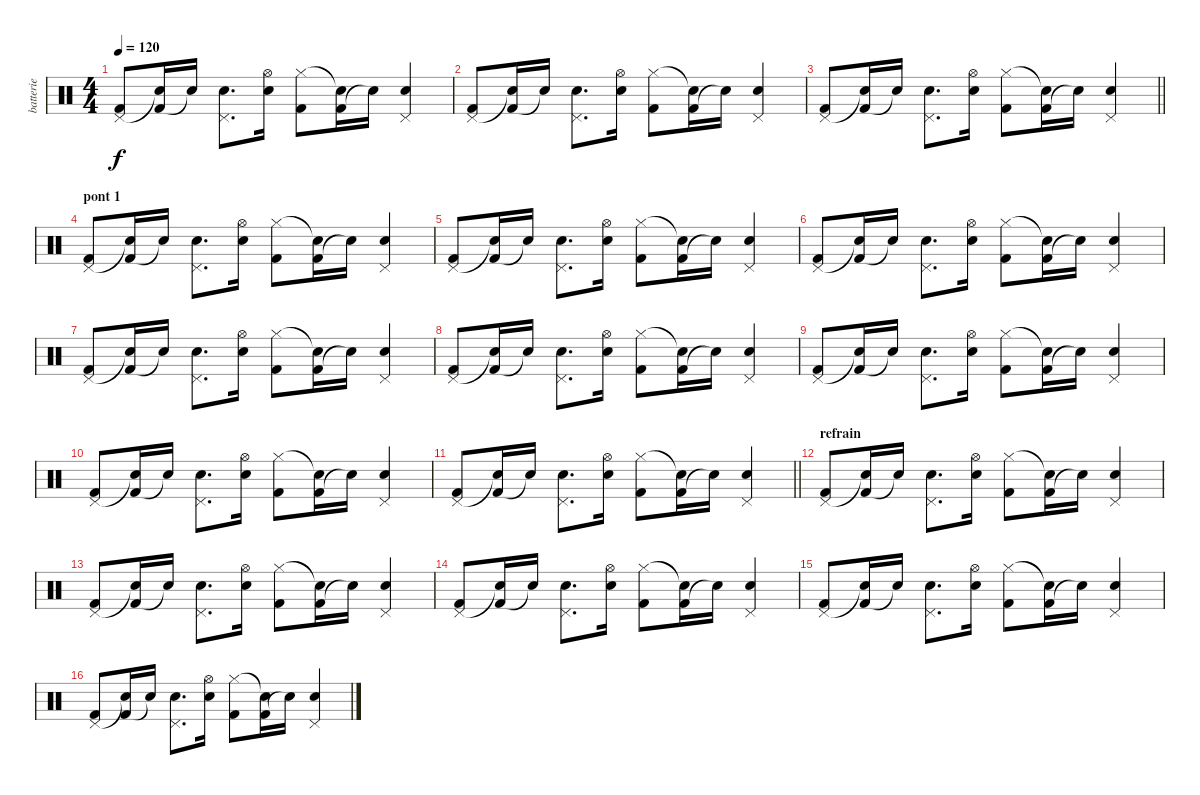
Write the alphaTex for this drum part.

\track ("batterie" "batterie") {instrument percussion}
\staff {score}
\articulation defaults
\ts (4 4)
\tempo 120
\clef neutral
\ks c
("Kick (hit) 2" "Pedal Hi-Hat (hit)").8{dy f} ("Kick (hit) 2" "Snare (hit)"{t}).16 "Snare (hit)"{t}.16 ("Snare (hit) 2" "Pedal Hi-Hat (hit)").8{d} ("Snare (hit) 2" "Hi-Hat (open)").16 ("Kick (hit) 2" "Hi-Hat (closed)").8 ("Kick (hit) 2" "Snare (hit)"{t}).16 "Snare (hit)"{t}.16 ("Snare (hit) 2" "Pedal Hi-Hat (hit)").4 |
("Kick (hit) 2" "Pedal Hi-Hat (hit)").8 ("Kick (hit) 2" "Snare (hit)"{t}).16 "Snare (hit)"{t}.16 ("Snare (hit) 2" "Pedal Hi-Hat (hit)").8{d} ("Snare (hit) 2" "Hi-Hat (open)").16 ("Kick (hit) 2" "Hi-Hat (closed)").8 ("Kick (hit) 2" "Snare (hit)"{t}).16 "Snare (hit)"{t}.16 ("Snare (hit) 2" "Pedal Hi-Hat (hit)").4 |
\barLineRight lightlight
("Kick (hit) 2" "Pedal Hi-Hat (hit)").8 ("Kick (hit) 2" "Snare (hit)"{t}).16 "Snare (hit)"{t}.16 ("Snare (hit) 2" "Pedal Hi-Hat (hit)").8{d} ("Snare (hit) 2" "Hi-Hat (open)").16 ("Kick (hit) 2" "Hi-Hat (closed)").8 ("Kick (hit) 2" "Snare (hit)"{t}).16 "Snare (hit)"{t}.16 ("Snare (hit) 2" "Pedal Hi-Hat (hit)").4 |
\section ("" "pont 1")
("Kick (hit) 2" "Pedal Hi-Hat (hit)").8 ("Kick (hit) 2" "Snare (hit)"{t}).16 "Snare (hit)"{t}.16 ("Snare (hit) 2" "Pedal Hi-Hat (hit)").8{d} ("Snare (hit) 2" "Hi-Hat (open)").16 ("Kick (hit) 2" "Hi-Hat (closed)").8 ("Kick (hit) 2" "Snare (hit)"{t}).16 "Snare (hit)"{t}.16 ("Snare (hit) 2" "Pedal Hi-Hat (hit)").4 |
("Kick (hit) 2" "Pedal Hi-Hat (hit)").8 ("Kick (hit) 2" "Snare (hit)"{t}).16 "Snare (hit)"{t}.16 ("Snare (hit) 2" "Pedal Hi-Hat (hit)").8{d} ("Snare (hit) 2" "Hi-Hat (open)").16 ("Kick (hit) 2" "Hi-Hat (closed)").8 ("Kick (hit) 2" "Snare (hit)"{t}).16 "Snare (hit)"{t}.16 ("Snare (hit) 2" "Pedal Hi-Hat (hit)").4 |
("Kick (hit) 2" "Pedal Hi-Hat (hit)").8 ("Kick (hit) 2" "Snare (hit)"{t}).16 "Snare (hit)"{t}.16 ("Snare (hit) 2" "Pedal Hi-Hat (hit)").8{d} ("Snare (hit) 2" "Hi-Hat (open)").16 ("Kick (hit) 2" "Hi-Hat (closed)").8 ("Kick (hit) 2" "Snare (hit)"{t}).16 "Snare (hit)"{t}.16 ("Snare (hit) 2" "Pedal Hi-Hat (hit)").4 |
("Kick (hit) 2" "Pedal Hi-Hat (hit)").8 ("Kick (hit) 2" "Snare (hit)"{t}).16 "Snare (hit)"{t}.16 ("Snare (hit) 2" "Pedal Hi-Hat (hit)").8{d} ("Snare (hit) 2" "Hi-Hat (open)").16 ("Kick (hit) 2" "Hi-Hat (closed)").8 ("Kick (hit) 2" "Snare (hit)"{t}).16 "Snare (hit)"{t}.16 ("Snare (hit) 2" "Pedal Hi-Hat (hit)").4 |
("Kick (hit) 2" "Pedal Hi-Hat (hit)").8 ("Kick (hit) 2" "Snare (hit)"{t}).16 "Snare (hit)"{t}.16 ("Snare (hit) 2" "Pedal Hi-Hat (hit)").8{d} ("Snare (hit) 2" "Hi-Hat (open)").16 ("Kick (hit) 2" "Hi-Hat (closed)").8 ("Kick (hit) 2" "Snare (hit)"{t}).16 "Snare (hit)"{t}.16 ("Snare (hit) 2" "Pedal Hi-Hat (hit)").4 |
("Kick (hit) 2" "Pedal Hi-Hat (hit)").8 ("Kick (hit) 2" "Snare (hit)"{t}).16 "Snare (hit)"{t}.16 ("Snare (hit) 2" "Pedal Hi-Hat (hit)").8{d} ("Snare (hit) 2" "Hi-Hat (open)").16 ("Kick (hit) 2" "Hi-Hat (closed)").8 ("Kick (hit) 2" "Snare (hit)"{t}).16 "Snare (hit)"{t}.16 ("Snare (hit) 2" "Pedal Hi-Hat (hit)").4 |
("Kick (hit) 2" "Pedal Hi-Hat (hit)").8 ("Kick (hit) 2" "Snare (hit)"{t}).16 "Snare (hit)"{t}.16 ("Snare (hit) 2" "Pedal Hi-Hat (hit)").8{d} ("Snare (hit) 2" "Hi-Hat (open)").16 ("Kick (hit) 2" "Hi-Hat (closed)").8 ("Kick (hit) 2" "Snare (hit)"{t}).16 "Snare (hit)"{t}.16 ("Snare (hit) 2" "Pedal Hi-Hat (hit)").4 |
\barLineRight lightlight
("Kick (hit) 2" "Pedal Hi-Hat (hit)").8 ("Kick (hit) 2" "Snare (hit)"{t}).16 "Snare (hit)"{t}.16 ("Snare (hit) 2" "Pedal Hi-Hat (hit)").8{d} ("Snare (hit) 2" "Hi-Hat (open)").16 ("Kick (hit) 2" "Hi-Hat (closed)").8 ("Kick (hit) 2" "Snare (hit)"{t}).16 "Snare (hit)"{t}.16 ("Snare (hit) 2" "Pedal Hi-Hat (hit)").4 |
\section ("" "refrain")
("Kick (hit) 2" "Pedal Hi-Hat (hit)").8 ("Kick (hit) 2" "Snare (hit)"{t}).16 "Snare (hit)"{t}.16 ("Snare (hit) 2" "Pedal Hi-Hat (hit)").8{d} ("Snare (hit) 2" "Hi-Hat (open)").16 ("Kick (hit) 2" "Hi-Hat (closed)").8 ("Kick (hit) 2" "Snare (hit)"{t}).16 "Snare (hit)"{t}.16 ("Snare (hit) 2" "Pedal Hi-Hat (hit)").4 |
("Kick (hit) 2" "Pedal Hi-Hat (hit)").8 ("Kick (hit) 2" "Snare (hit)"{t}).16 "Snare (hit)"{t}.16 ("Snare (hit) 2" "Pedal Hi-Hat (hit)").8{d} ("Snare (hit) 2" "Hi-Hat (open)").16 ("Kick (hit) 2" "Hi-Hat (closed)").8 ("Kick (hit) 2" "Snare (hit)"{t}).16 "Snare (hit)"{t}.16 ("Snare (hit) 2" "Pedal Hi-Hat (hit)").4 |
("Kick (hit) 2" "Pedal Hi-Hat (hit)").8 ("Kick (hit) 2" "Snare (hit)"{t}).16 "Snare (hit)"{t}.16 ("Snare (hit) 2" "Pedal Hi-Hat (hit)").8{d} ("Snare (hit) 2" "Hi-Hat (open)").16 ("Kick (hit) 2" "Hi-Hat (closed)").8 ("Kick (hit) 2" "Snare (hit)"{t}).16 "Snare (hit)"{t}.16 ("Snare (hit) 2" "Pedal Hi-Hat (hit)").4 |
("Kick (hit) 2" "Pedal Hi-Hat (hit)").8 ("Kick (hit) 2" "Snare (hit)"{t}).16 "Snare (hit)"{t}.16 ("Snare (hit) 2" "Pedal Hi-Hat (hit)").8{d} ("Snare (hit) 2" "Hi-Hat (open)").16 ("Kick (hit) 2" "Hi-Hat (closed)").8 ("Kick (hit) 2" "Snare (hit)"{t}).16 "Snare (hit)"{t}.16 ("Snare (hit) 2" "Pedal Hi-Hat (hit)").4 |
("Kick (hit) 2" "Pedal Hi-Hat (hit)").8 ("Kick (hit) 2" "Snare (hit)"{t}).16 "Snare (hit)"{t}.16 ("Snare (hit) 2" "Pedal Hi-Hat (hit)").8{d} ("Snare (hit) 2" "Hi-Hat (open)").16 ("Kick (hit) 2" "Hi-Hat (closed)").8 ("Kick (hit) 2" "Snare (hit)"{t}).16 "Snare (hit)"{t}.16 ("Snare (hit) 2" "Pedal Hi-Hat (hit)").4
